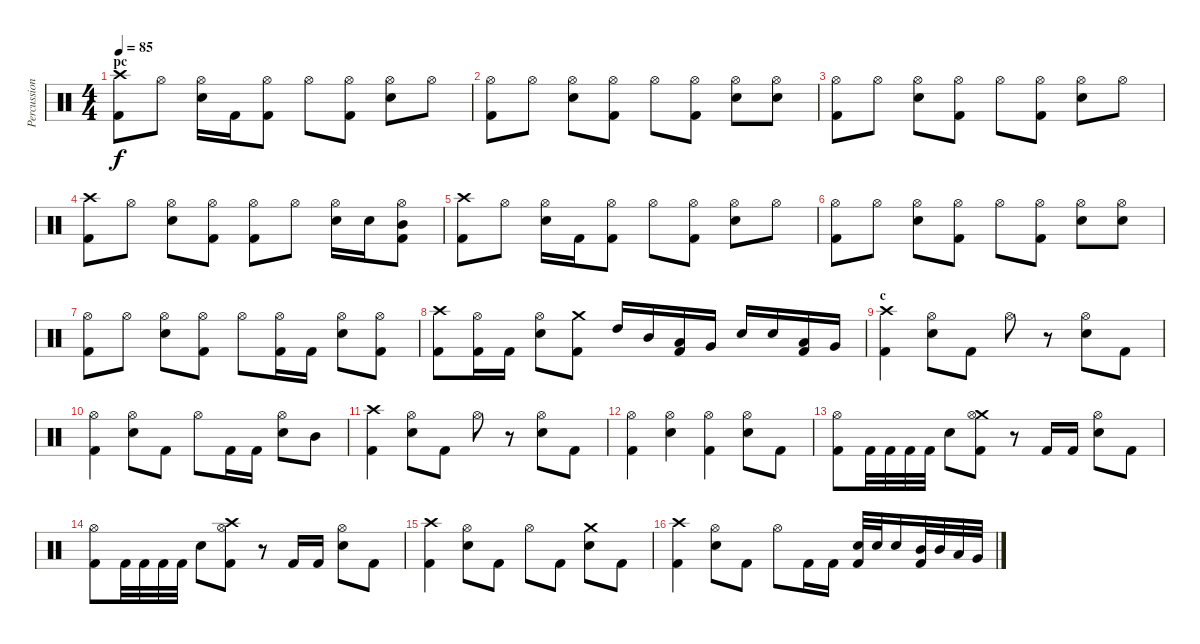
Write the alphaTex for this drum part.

\track ("Percussion" "Percussion") {instrument percussion}
\staff {score}
\articulation defaults
\ts (4 4)
\section ("" "pc")
\tempo 85
\clef neutral
\ks c
("Crash high (hit)" "Kick (hit) 2").8{dy f} "Hi-Hat (open)".8 ("Hi-Hat (open)" "Snare (hit) 2").16 "Kick (hit) 2".16 ("Hi-Hat (open)" "Kick (hit) 2").8 "Hi-Hat (open)".8 ("Hi-Hat (open)" "Kick (hit) 2").8 ("Hi-Hat (open)" "Snare (hit) 2").8 "Hi-Hat (open)".8 |
("Hi-Hat (open)" "Kick (hit) 2").8 "Hi-Hat (open)".8 ("Hi-Hat (open)" "Snare (hit) 2").8 ("Hi-Hat (open)" "Kick (hit) 2").8 "Hi-Hat (open)".8 ("Hi-Hat (open)" "Kick (hit) 2").8 ("Hi-Hat (open)" "Snare (hit) 2").8 ("Hi-Hat (open)" "Snare (hit) 2").8 |
("Hi-Hat (open)" "Kick (hit) 2").8 "Hi-Hat (open)".8 ("Hi-Hat (open)" "Snare (hit) 2").8 ("Hi-Hat (open)" "Kick (hit) 2").8 "Hi-Hat (open)".8 ("Hi-Hat (open)" "Kick (hit) 2").8 ("Hi-Hat (open)" "Snare (hit) 2").8 "Hi-Hat (open)".8 |
("Crash high (hit)" "Kick (hit) 2").8 "Hi-Hat (open)".8 ("Hi-Hat (open)" "Snare (hit) 2").8 ("Hi-Hat (open)" "Kick (hit) 2").8 ("Hi-Hat (open)" "Kick (hit) 2").8 "Hi-Hat (open)".8 ("Hi-Hat (open)" "Snare (hit) 2").16 "Snare (hit) 2".16 ("Hi-Hat (open)" "Mid Tom (hit)" "Kick (hit) 2").8 |
("Crash high (hit)" "Kick (hit) 2").8 "Hi-Hat (open)".8 ("Hi-Hat (open)" "Snare (hit) 2").16 "Kick (hit) 2".16 ("Hi-Hat (open)" "Kick (hit) 2").8 "Hi-Hat (open)".8 ("Hi-Hat (open)" "Kick (hit) 2").8 ("Hi-Hat (open)" "Snare (hit) 2").8 "Hi-Hat (open)".8 |
("Hi-Hat (open)" "Kick (hit) 2").8 "Hi-Hat (open)".8 ("Hi-Hat (open)" "Snare (hit) 2").8 ("Hi-Hat (open)" "Kick (hit) 2").8 "Hi-Hat (open)".8 ("Hi-Hat (open)" "Kick (hit) 2").8 ("Hi-Hat (open)" "Snare (hit) 2").8 ("Hi-Hat (open)" "Snare (hit) 2").8 |
("Hi-Hat (open)" "Kick (hit) 2").8 "Hi-Hat (open)".8 ("Hi-Hat (open)" "Snare (hit) 2").8 ("Hi-Hat (open)" "Kick (hit) 2").8 "Hi-Hat (open)".8 ("Hi-Hat (open)" "Kick (hit) 2").16 "Kick (hit) 2".16 ("Hi-Hat (open)" "Snare (hit) 2").8 ("Hi-Hat (open)" "Kick (hit) 2").8 |
("Crash high (hit)" "Kick (hit) 2").8 ("Hi-Hat (open)" "Kick (hit) 2").16 "Kick (hit) 2".16 ("Hi-Hat (open)" "Snare (hit) 2").8 ("Crash medium (hit)" "Kick (hit) 2").8 "High Tom (hit)".16 "Mid Tom (hit)".16 ("Low Tom (hit)" "Kick (hit) 2").16 "Very Low Tom (hit)".16 "Snare (hit) 2".16 "Snare (hit) 2".16 ("Low Tom (hit)" "Kick (hit) 2").16 "Very Low Tom (hit)".16 |
\section ("" "c")
("Crash high (hit)" "Kick (hit) 2").4 ("Hi-Hat (open)" "Snare (hit) 2").8 "Kick (hit) 2".8 "Hi-Hat (open)".8 r.8 ("Hi-Hat (open)" "Snare (hit) 2").8 "Kick (hit) 2".8 |
("Hi-Hat (open)" "Kick (hit) 2").4 ("Hi-Hat (open)" "Snare (hit) 2").8 "Kick (hit) 2".8 "Hi-Hat (open)".8 "Kick (hit) 2".16 "Kick (hit) 2".16 ("Hi-Hat (open)" "Snare (hit) 2").8 "Mid Tom (hit)".8 |
("Crash high (hit)" "Kick (hit) 2").4 ("Hi-Hat (open)" "Snare (hit) 2").8 "Kick (hit) 2".8 "Hi-Hat (open)".8 r.8 ("Hi-Hat (open)" "Snare (hit) 2").8 "Kick (hit) 2".8 |
("Hi-Hat (open)" "Kick (hit) 2").4 ("Hi-Hat (open)" "Snare (hit) 2").4 ("Hi-Hat (open)" "Kick (hit) 2").4 ("Hi-Hat (open)" "Snare (hit) 2").8 "Kick (hit) 2".8 |
("Hi-Hat (open)" "Kick (hit) 2").8 "Kick (hit) 2".32 "Kick (hit) 2".32 "Kick (hit) 2".32 "Kick (hit) 2".32 "Snare (hit) 2".8 ("Crash medium (hit)" "Hi-Hat (open)" "Kick (hit) 2").8 r.8 "Kick (hit) 2".16 "Kick (hit) 2".16 ("Hi-Hat (open)" "Snare (hit) 2").8 "Kick (hit) 2".8 |
("Hi-Hat (open)" "Kick (hit) 2").8 "Kick (hit) 2".32 "Kick (hit) 2".32 "Kick (hit) 2".32 "Kick (hit) 2".32 "Snare (hit) 2".8 ("Crash high (hit)" "Hi-Hat (open)" "Kick (hit) 2").8 r.8 "Kick (hit) 2".16 "Kick (hit) 2".16 ("Hi-Hat (open)" "Snare (hit) 2").8 "Kick (hit) 2".8 |
("Crash high (hit)" "Kick (hit) 2").4 ("Hi-Hat (open)" "Snare (hit) 2").8 "Kick (hit) 2".8 "Hi-Hat (open)".8 "Kick (hit) 2".8 ("Crash medium (hit)" "Snare (hit) 2").8 "Kick (hit) 2".8 |
("Crash high (hit)" "Kick (hit) 2").4 ("Hi-Hat (open)" "Snare (hit) 2").8 "Kick (hit) 2".8 "Hi-Hat (open)".8 "Kick (hit) 2".16 "Kick (hit) 2".16 ("Snare (hit) 2" "Kick (hit) 2").32 "Snare (hit) 2".32 "Snare (hit) 2".16 ("Mid Tom (hit)" "Kick (hit) 2").32 "Mid Tom (hit)".32 "Low Tom (hit)".32 "Very Low Tom (hit)".32
